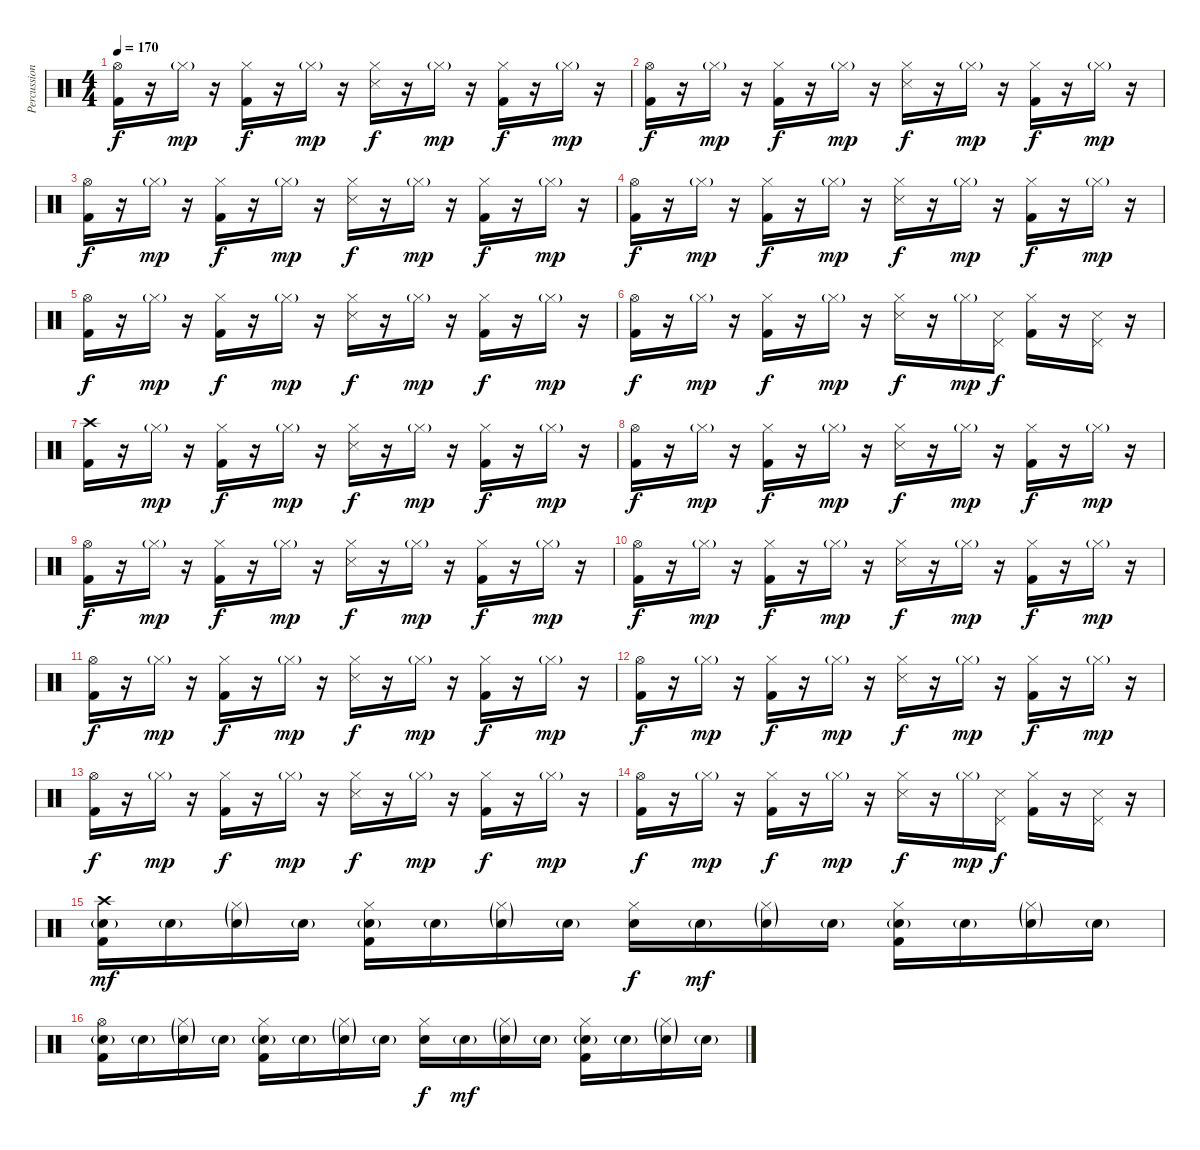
\track ("Percussion" "Percussion") {instrument percussion}
\staff {score}
\articulation defaults
\ts (4 4)
\tempo 170
\clef neutral
\ks c
("Hi-Hat (open)" "Kick (hit) 2").16{dy f} r.16 "Hi-Hat (closed)"{g}.16{dy mp} r.16 ("Hi-Hat (closed)" "Kick (hit) 2").16{dy f} r.16 "Hi-Hat (closed)"{g}.16{dy mp} r.16 ("Hi-Hat (closed)" "Snare (side stick) 3").16{dy f} r.16 "Hi-Hat (closed)"{g}.16{dy mp} r.16 ("Hi-Hat (closed)" "Kick (hit) 2").16{dy f} r.16 "Hi-Hat (closed)"{g}.16{dy mp} r.16 |
("Hi-Hat (open)" "Kick (hit) 2").16{dy f} r.16 "Hi-Hat (closed)"{g}.16{dy mp} r.16 ("Hi-Hat (closed)" "Kick (hit) 2").16{dy f} r.16 "Hi-Hat (closed)"{g}.16{dy mp} r.16 ("Hi-Hat (closed)" "Snare (side stick) 3").16{dy f} r.16 "Hi-Hat (closed)"{g}.16{dy mp} r.16 ("Hi-Hat (closed)" "Kick (hit) 2").16{dy f} r.16 "Hi-Hat (closed)"{g}.16{dy mp} r.16 |
("Hi-Hat (open)" "Kick (hit) 2").16{dy f} r.16 "Hi-Hat (closed)"{g}.16{dy mp} r.16 ("Hi-Hat (closed)" "Kick (hit) 2").16{dy f} r.16 "Hi-Hat (closed)"{g}.16{dy mp} r.16 ("Hi-Hat (closed)" "Snare (side stick) 3").16{dy f} r.16 "Hi-Hat (closed)"{g}.16{dy mp} r.16 ("Hi-Hat (closed)" "Kick (hit) 2").16{dy f} r.16 "Hi-Hat (closed)"{g}.16{dy mp} r.16 |
("Hi-Hat (open)" "Kick (hit) 2").16{dy f} r.16 "Hi-Hat (closed)"{g}.16{dy mp} r.16 ("Hi-Hat (closed)" "Kick (hit) 2").16{dy f} r.16 "Hi-Hat (closed)"{g}.16{dy mp} r.16 ("Hi-Hat (closed)" "Snare (side stick) 3").16{dy f} r.16 "Hi-Hat (closed)"{g}.16{dy mp} r.16 ("Hi-Hat (closed)" "Kick (hit) 2").16{dy f} r.16 "Hi-Hat (closed)"{g}.16{dy mp} r.16 |
("Hi-Hat (open)" "Kick (hit) 2").16{dy f} r.16 "Hi-Hat (closed)"{g}.16{dy mp} r.16 ("Hi-Hat (closed)" "Kick (hit) 2").16{dy f} r.16 "Hi-Hat (closed)"{g}.16{dy mp} r.16 ("Hi-Hat (closed)" "Snare (side stick) 3").16{dy f} r.16 "Hi-Hat (closed)"{g}.16{dy mp} r.16 ("Hi-Hat (closed)" "Kick (hit) 2").16{dy f} r.16 "Hi-Hat (closed)"{g}.16{dy mp} r.16 |
("Hi-Hat (open)" "Kick (hit) 2").16{dy f} r.16 "Hi-Hat (closed)"{g}.16{dy mp} r.16 ("Hi-Hat (closed)" "Kick (hit) 2").16{dy f} r.16 "Hi-Hat (closed)"{g}.16{dy mp} r.16 ("Hi-Hat (closed)" "Snare (side stick) 3").16{dy f} r.16 "Hi-Hat (closed)"{g}.16{dy mp} ("Pedal Hi-Hat (hit)" "Snare (side stick) 3").16{dy f} ("Hi-Hat (closed)" "Kick (hit) 2").16 r.16 ("Pedal Hi-Hat (hit)" "Snare (side stick) 3").16 r.16 |
("Crash high (hit)" "Kick (hit) 2").16 r.16 "Hi-Hat (closed)"{g}.16{dy mp} r.16 ("Hi-Hat (closed)" "Kick (hit) 2").16{dy f} r.16 "Hi-Hat (closed)"{g}.16{dy mp} r.16 ("Hi-Hat (closed)" "Snare (side stick) 3").16{dy f} r.16 "Hi-Hat (closed)"{g}.16{dy mp} r.16 ("Hi-Hat (closed)" "Kick (hit) 2").16{dy f} r.16 "Hi-Hat (closed)"{g}.16{dy mp} r.16 |
("Hi-Hat (open)" "Kick (hit) 2").16{dy f} r.16 "Hi-Hat (closed)"{g}.16{dy mp} r.16 ("Hi-Hat (closed)" "Kick (hit) 2").16{dy f} r.16 "Hi-Hat (closed)"{g}.16{dy mp} r.16 ("Hi-Hat (closed)" "Snare (side stick) 3").16{dy f} r.16 "Hi-Hat (closed)"{g}.16{dy mp} r.16 ("Hi-Hat (closed)" "Kick (hit) 2").16{dy f} r.16 "Hi-Hat (closed)"{g}.16{dy mp} r.16 |
("Hi-Hat (open)" "Kick (hit) 2").16{dy f} r.16 "Hi-Hat (closed)"{g}.16{dy mp} r.16 ("Hi-Hat (closed)" "Kick (hit) 2").16{dy f} r.16 "Hi-Hat (closed)"{g}.16{dy mp} r.16 ("Hi-Hat (closed)" "Snare (side stick) 3").16{dy f} r.16 "Hi-Hat (closed)"{g}.16{dy mp} r.16 ("Hi-Hat (closed)" "Kick (hit) 2").16{dy f} r.16 "Hi-Hat (closed)"{g}.16{dy mp} r.16 |
("Hi-Hat (open)" "Kick (hit) 2").16{dy f} r.16 "Hi-Hat (closed)"{g}.16{dy mp} r.16 ("Hi-Hat (closed)" "Kick (hit) 2").16{dy f} r.16 "Hi-Hat (closed)"{g}.16{dy mp} r.16 ("Hi-Hat (closed)" "Snare (side stick) 3").16{dy f} r.16 "Hi-Hat (closed)"{g}.16{dy mp} r.16 ("Hi-Hat (closed)" "Kick (hit) 2").16{dy f} r.16 "Hi-Hat (closed)"{g}.16{dy mp} r.16 |
("Hi-Hat (open)" "Kick (hit) 2").16{dy f} r.16 "Hi-Hat (closed)"{g}.16{dy mp} r.16 ("Hi-Hat (closed)" "Kick (hit) 2").16{dy f} r.16 "Hi-Hat (closed)"{g}.16{dy mp} r.16 ("Hi-Hat (closed)" "Snare (side stick) 3").16{dy f} r.16 "Hi-Hat (closed)"{g}.16{dy mp} r.16 ("Hi-Hat (closed)" "Kick (hit) 2").16{dy f} r.16 "Hi-Hat (closed)"{g}.16{dy mp} r.16 |
("Hi-Hat (open)" "Kick (hit) 2").16{dy f} r.16 "Hi-Hat (closed)"{g}.16{dy mp} r.16 ("Hi-Hat (closed)" "Kick (hit) 2").16{dy f} r.16 "Hi-Hat (closed)"{g}.16{dy mp} r.16 ("Hi-Hat (closed)" "Snare (side stick) 3").16{dy f} r.16 "Hi-Hat (closed)"{g}.16{dy mp} r.16 ("Hi-Hat (closed)" "Kick (hit) 2").16{dy f} r.16 "Hi-Hat (closed)"{g}.16{dy mp} r.16 |
("Hi-Hat (open)" "Kick (hit) 2").16{dy f} r.16 "Hi-Hat (closed)"{g}.16{dy mp} r.16 ("Hi-Hat (closed)" "Kick (hit) 2").16{dy f} r.16 "Hi-Hat (closed)"{g}.16{dy mp} r.16 ("Hi-Hat (closed)" "Snare (side stick) 3").16{dy f} r.16 "Hi-Hat (closed)"{g}.16{dy mp} r.16 ("Hi-Hat (closed)" "Kick (hit) 2").16{dy f} r.16 "Hi-Hat (closed)"{g}.16{dy mp} r.16 |
("Hi-Hat (open)" "Kick (hit) 2").16{dy f} r.16 "Hi-Hat (closed)"{g}.16{dy mp} r.16 ("Hi-Hat (closed)" "Kick (hit) 2").16{dy f} r.16 "Hi-Hat (closed)"{g}.16{dy mp} r.16 ("Hi-Hat (closed)" "Snare (side stick) 3").16{dy f} r.16 "Hi-Hat (closed)"{g}.16{dy mp} ("Pedal Hi-Hat (hit)" "Snare (side stick) 3").16{dy f} ("Hi-Hat (closed)" "Kick (hit) 2").16 r.16 ("Pedal Hi-Hat (hit)" "Snare (side stick) 3").16 r.16 |
("Crash high (hit)" "Kick (hit) 2" "Electric Snare (hit)"{g}).16{dy mf} "Electric Snare (hit)"{g}.16 ("Hi-Hat (closed)"{g} "Electric Snare (hit)"{g}).16 "Electric Snare (hit)"{g}.16 ("Hi-Hat (closed)" "Kick (hit) 2" "Electric Snare (hit)"{g}).16 "Electric Snare (hit)"{g}.16 ("Hi-Hat (closed)"{g} "Electric Snare (hit)"{g}).16 "Electric Snare (hit)"{g}.16 ("Hi-Hat (closed)" "Electric Snare (hit)").16{dy f} "Electric Snare (hit)"{g}.16{dy mf} ("Hi-Hat (closed)"{g} "Electric Snare (hit)"{g}).16 "Electric Snare (hit)"{g}.16 ("Hi-Hat (closed)" "Kick (hit) 2" "Electric Snare (hit)"{g}).16 "Electric Snare (hit)"{g}.16 ("Hi-Hat (closed)"{g} "Electric Snare (hit)"{g}).16 "Electric Snare (hit)"{g}.16 |
("Hi-Hat (open)" "Kick (hit) 2" "Electric Snare (hit)"{g}).16 "Electric Snare (hit)"{g}.16 ("Hi-Hat (closed)"{g} "Electric Snare (hit)"{g}).16 "Electric Snare (hit)"{g}.16 ("Hi-Hat (closed)" "Kick (hit) 2" "Electric Snare (hit)"{g}).16 "Electric Snare (hit)"{g}.16 ("Hi-Hat (closed)"{g} "Electric Snare (hit)"{g}).16 "Electric Snare (hit)"{g}.16 ("Hi-Hat (closed)" "Electric Snare (hit)").16{dy f} "Electric Snare (hit)"{g}.16{dy mf} ("Hi-Hat (closed)"{g} "Electric Snare (hit)"{g}).16 "Electric Snare (hit)"{g}.16 ("Hi-Hat (closed)" "Kick (hit) 2" "Electric Snare (hit)"{g}).16 "Electric Snare (hit)"{g}.16 ("Hi-Hat (closed)"{g} "Electric Snare (hit)"{g}).16 "Electric Snare (hit)"{g}.16
